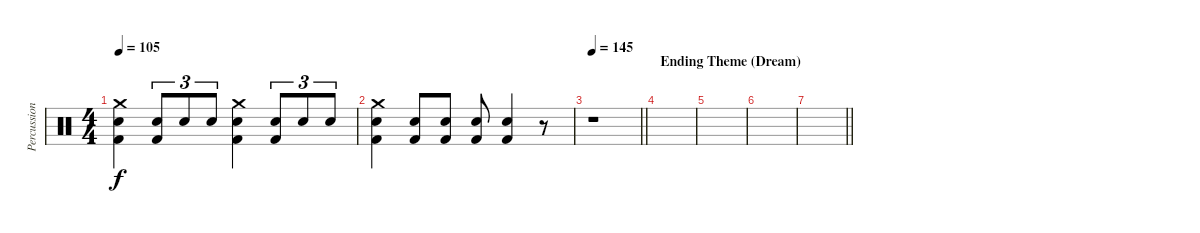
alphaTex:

\track ("Percussion" "Percussion") {instrument percussion}
\staff {score}
\articulation defaults
\ts (4 4)
\tempo 105
\clef neutral
\ks c
("Crash medium (hit)" "Electric Snare (hit)" "Kick (hit) 2").4{dy f} ("Electric Snare (hit)" "Kick (hit) 2").8{tu (3 2)} "Electric Snare (hit)".8{tu (3 2)} "Electric Snare (hit)".8{tu (3 2)} ("Crash medium (hit)" "Electric Snare (hit)" "Kick (hit) 2").4 ("Electric Snare (hit)" "Kick (hit) 2").8{tu (3 2)} "Electric Snare (hit)".8{tu (3 2)} "Electric Snare (hit)".8{tu (3 2)} |
("Crash medium (hit)" "Electric Snare (hit)" "Kick (hit) 2").4 ("Electric Snare (hit)" "Kick (hit) 2").8 ("Electric Snare (hit)" "Kick (hit) 2").8 ("Electric Snare (hit)" "Kick (hit) 2").8 ("Electric Snare (hit)" "Kick (hit) 2").4 r.8 |
\tempo 145
\barLineRight lightlight
r.1 |
\section ("" "Ending Theme (Dream)")
|
|
|
\barLineRight lightlight
